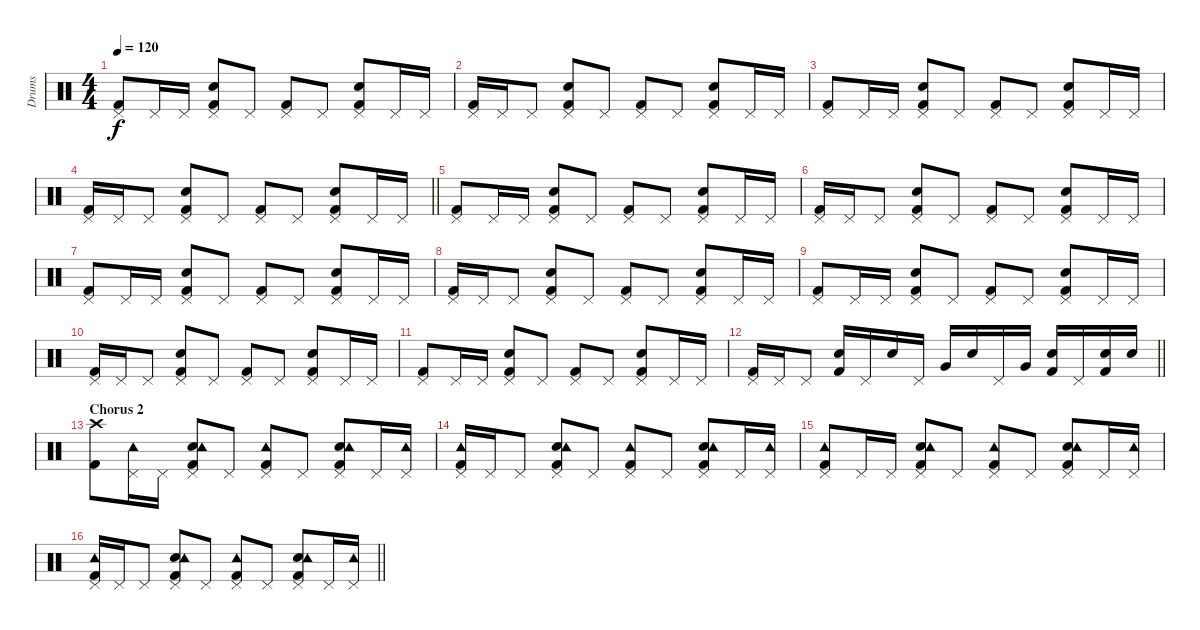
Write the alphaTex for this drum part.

\track ("Drums" "Drums") {instrument percussion}
\staff {score}
\articulation defaults
\ts (4 4)
\tempo 120
\clef neutral
\ks c
("Kick (hit) 2" "Pedal Hi-Hat (hit)").8{dy f} "Pedal Hi-Hat (hit)".16 "Pedal Hi-Hat (hit)".16 ("Kick (hit) 2" "Snare (hit) 2" "Pedal Hi-Hat (hit)").8 "Pedal Hi-Hat (hit)".8 ("Kick (hit) 2" "Pedal Hi-Hat (hit)").8 "Pedal Hi-Hat (hit)".8 ("Kick (hit) 2" "Snare (hit) 2" "Pedal Hi-Hat (hit)").8 "Pedal Hi-Hat (hit)".16 "Pedal Hi-Hat (hit)".16 |
("Kick (hit) 2" "Pedal Hi-Hat (hit)").16 "Pedal Hi-Hat (hit)".16 "Pedal Hi-Hat (hit)".8 ("Kick (hit) 2" "Snare (hit) 2" "Pedal Hi-Hat (hit)").8 "Pedal Hi-Hat (hit)".8 ("Kick (hit) 2" "Pedal Hi-Hat (hit)").8 "Pedal Hi-Hat (hit)".8 ("Kick (hit) 2" "Snare (hit) 2" "Pedal Hi-Hat (hit)").8 "Pedal Hi-Hat (hit)".16 "Pedal Hi-Hat (hit)".16 |
("Kick (hit) 2" "Pedal Hi-Hat (hit)").8 "Pedal Hi-Hat (hit)".16 "Pedal Hi-Hat (hit)".16 ("Kick (hit) 2" "Snare (hit) 2" "Pedal Hi-Hat (hit)").8 "Pedal Hi-Hat (hit)".8 ("Kick (hit) 2" "Pedal Hi-Hat (hit)").8 "Pedal Hi-Hat (hit)".8 ("Kick (hit) 2" "Snare (hit) 2" "Pedal Hi-Hat (hit)").8 "Pedal Hi-Hat (hit)".16 "Pedal Hi-Hat (hit)".16 |
\barLineRight lightlight
("Kick (hit) 2" "Pedal Hi-Hat (hit)").16 "Pedal Hi-Hat (hit)".16 "Pedal Hi-Hat (hit)".8 ("Kick (hit) 2" "Snare (hit) 2" "Pedal Hi-Hat (hit)").8 "Pedal Hi-Hat (hit)".8 ("Kick (hit) 2" "Pedal Hi-Hat (hit)").8 "Pedal Hi-Hat (hit)".8 ("Kick (hit) 2" "Snare (hit) 2" "Pedal Hi-Hat (hit)").8 "Pedal Hi-Hat (hit)".16 "Pedal Hi-Hat (hit)".16 |
("Kick (hit) 2" "Pedal Hi-Hat (hit)").8 "Pedal Hi-Hat (hit)".16 "Pedal Hi-Hat (hit)".16 ("Kick (hit) 2" "Snare (hit) 2" "Pedal Hi-Hat (hit)").8 "Pedal Hi-Hat (hit)".8 ("Kick (hit) 2" "Pedal Hi-Hat (hit)").8 "Pedal Hi-Hat (hit)".8 ("Kick (hit) 2" "Snare (hit) 2" "Pedal Hi-Hat (hit)").8 "Pedal Hi-Hat (hit)".16 "Pedal Hi-Hat (hit)".16 |
("Kick (hit) 2" "Pedal Hi-Hat (hit)").16 "Pedal Hi-Hat (hit)".16 "Pedal Hi-Hat (hit)".8 ("Kick (hit) 2" "Snare (hit) 2" "Pedal Hi-Hat (hit)").8 "Pedal Hi-Hat (hit)".8 ("Kick (hit) 2" "Pedal Hi-Hat (hit)").8 "Pedal Hi-Hat (hit)".8 ("Kick (hit) 2" "Snare (hit) 2" "Pedal Hi-Hat (hit)").8 "Pedal Hi-Hat (hit)".16 "Pedal Hi-Hat (hit)".16 |
("Kick (hit) 2" "Pedal Hi-Hat (hit)").8 "Pedal Hi-Hat (hit)".16 "Pedal Hi-Hat (hit)".16 ("Kick (hit) 2" "Snare (hit) 2" "Pedal Hi-Hat (hit)").8 "Pedal Hi-Hat (hit)".8 ("Kick (hit) 2" "Pedal Hi-Hat (hit)").8 "Pedal Hi-Hat (hit)".8 ("Kick (hit) 2" "Snare (hit) 2" "Pedal Hi-Hat (hit)").8 "Pedal Hi-Hat (hit)".16 "Pedal Hi-Hat (hit)".16 |
("Kick (hit) 2" "Pedal Hi-Hat (hit)").16 "Pedal Hi-Hat (hit)".16 "Pedal Hi-Hat (hit)".8 ("Kick (hit) 2" "Snare (hit) 2" "Pedal Hi-Hat (hit)").8 "Pedal Hi-Hat (hit)".8 ("Kick (hit) 2" "Pedal Hi-Hat (hit)").8 "Pedal Hi-Hat (hit)".8 ("Kick (hit) 2" "Snare (hit) 2" "Pedal Hi-Hat (hit)").8 "Pedal Hi-Hat (hit)".16 "Pedal Hi-Hat (hit)".16 |
("Kick (hit) 2" "Pedal Hi-Hat (hit)").8 "Pedal Hi-Hat (hit)".16 "Pedal Hi-Hat (hit)".16 ("Kick (hit) 2" "Snare (hit) 2" "Pedal Hi-Hat (hit)").8 "Pedal Hi-Hat (hit)".8 ("Kick (hit) 2" "Pedal Hi-Hat (hit)").8 "Pedal Hi-Hat (hit)".8 ("Kick (hit) 2" "Snare (hit) 2" "Pedal Hi-Hat (hit)").8 "Pedal Hi-Hat (hit)".16 "Pedal Hi-Hat (hit)".16 |
("Kick (hit) 2" "Pedal Hi-Hat (hit)").16 "Pedal Hi-Hat (hit)".16 "Pedal Hi-Hat (hit)".8 ("Kick (hit) 2" "Snare (hit) 2" "Pedal Hi-Hat (hit)").8 "Pedal Hi-Hat (hit)".8 ("Kick (hit) 2" "Pedal Hi-Hat (hit)").8 "Pedal Hi-Hat (hit)".8 ("Kick (hit) 2" "Snare (hit) 2" "Pedal Hi-Hat (hit)").8 "Pedal Hi-Hat (hit)".16 "Pedal Hi-Hat (hit)".16 |
("Kick (hit) 2" "Pedal Hi-Hat (hit)").8 "Pedal Hi-Hat (hit)".16 "Pedal Hi-Hat (hit)".16 ("Kick (hit) 2" "Snare (hit) 2" "Pedal Hi-Hat (hit)").8 "Pedal Hi-Hat (hit)".8 ("Kick (hit) 2" "Pedal Hi-Hat (hit)").8 "Pedal Hi-Hat (hit)".8 ("Kick (hit) 2" "Snare (hit) 2" "Pedal Hi-Hat (hit)").8 "Pedal Hi-Hat (hit)".16 "Pedal Hi-Hat (hit)".16 |
\barLineRight lightlight
("Kick (hit) 2" "Pedal Hi-Hat (hit)").16 "Pedal Hi-Hat (hit)".16 "Pedal Hi-Hat (hit)".8 ("Kick (hit) 2" "Snare (hit) 2").16 "Pedal Hi-Hat (hit)".16 "Snare (hit) 2".16 "Pedal Hi-Hat (hit)".16 "Very Low Tom (hit)".16 "Snare (hit) 2".16 "Pedal Hi-Hat (hit)".16 "Very Low Tom (hit)".16 ("Kick (hit) 2" "Snare (hit) 2").16 "Pedal Hi-Hat (hit)".16 ("Kick (hit) 2" "Snare (hit) 2").16 "Snare (hit) 2".16 |
\section ("" "Chorus 2")
("Kick (hit) 2" "Crash high (hit)").8 ("Tambourine (hit)" "Pedal Hi-Hat (hit)").16 "Pedal Hi-Hat (hit)".16 ("Kick (hit) 2" "Snare (hit) 2" "Tambourine (hit)" "Pedal Hi-Hat (hit)").8 "Pedal Hi-Hat (hit)".8 ("Kick (hit) 2" "Tambourine (hit)" "Pedal Hi-Hat (hit)").8 "Pedal Hi-Hat (hit)".8 ("Kick (hit) 2" "Snare (hit) 2" "Tambourine (hit)" "Pedal Hi-Hat (hit)").8 "Pedal Hi-Hat (hit)".16 ("Tambourine (hit)" "Pedal Hi-Hat (hit)").16 |
("Kick (hit) 2" "Tambourine (hit)" "Pedal Hi-Hat (hit)").16 "Pedal Hi-Hat (hit)".16 "Pedal Hi-Hat (hit)".8 ("Kick (hit) 2" "Snare (hit) 2" "Tambourine (hit)" "Pedal Hi-Hat (hit)").8 "Pedal Hi-Hat (hit)".8 ("Kick (hit) 2" "Tambourine (hit)" "Pedal Hi-Hat (hit)").8 "Pedal Hi-Hat (hit)".8 ("Kick (hit) 2" "Snare (hit) 2" "Tambourine (hit)" "Pedal Hi-Hat (hit)").8 "Pedal Hi-Hat (hit)".16 ("Tambourine (hit)" "Pedal Hi-Hat (hit)").16 |
("Kick (hit) 2" "Tambourine (hit)" "Pedal Hi-Hat (hit)").8 "Pedal Hi-Hat (hit)".16 "Pedal Hi-Hat (hit)".16 ("Kick (hit) 2" "Snare (hit) 2" "Tambourine (hit)" "Pedal Hi-Hat (hit)").8 "Pedal Hi-Hat (hit)".8 ("Kick (hit) 2" "Tambourine (hit)" "Pedal Hi-Hat (hit)").8 "Pedal Hi-Hat (hit)".8 ("Kick (hit) 2" "Snare (hit) 2" "Tambourine (hit)" "Pedal Hi-Hat (hit)").8 "Pedal Hi-Hat (hit)".16 ("Tambourine (hit)" "Pedal Hi-Hat (hit)").16 |
\barLineRight lightlight
("Kick (hit) 2" "Tambourine (hit)" "Pedal Hi-Hat (hit)").16 "Pedal Hi-Hat (hit)".16 "Pedal Hi-Hat (hit)".8 ("Kick (hit) 2" "Snare (hit) 2" "Tambourine (hit)" "Pedal Hi-Hat (hit)").8 "Pedal Hi-Hat (hit)".8 ("Kick (hit) 2" "Tambourine (hit)" "Pedal Hi-Hat (hit)").8 "Pedal Hi-Hat (hit)".8 ("Kick (hit) 2" "Snare (hit) 2" "Tambourine (hit)" "Pedal Hi-Hat (hit)").8 "Pedal Hi-Hat (hit)".16 ("Tambourine (hit)" "Pedal Hi-Hat (hit)").16
